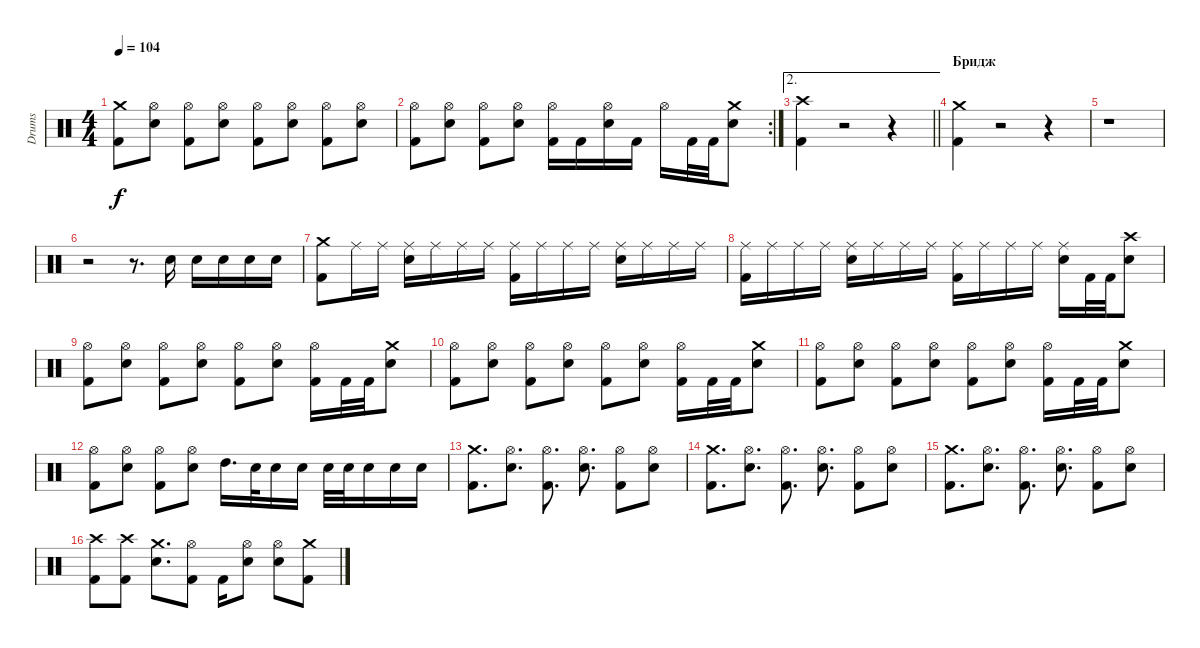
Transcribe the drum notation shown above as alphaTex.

\track ("Drums" "Drums") {instrument percussion}
\staff {score}
\articulation defaults
\ts (4 4)
\tempo 104
\clef neutral
\ks c
("Crash medium (hit)" "Kick (hit) 2").8{dy f} ("Hi-Hat (open)" "Electric Snare (hit)").8 ("Hi-Hat (open)" "Kick (hit) 2").8 ("Hi-Hat (open)" "Electric Snare (hit)").8 ("Hi-Hat (open)" "Kick (hit) 2").8 ("Hi-Hat (open)" "Electric Snare (hit)").8 ("Hi-Hat (open)" "Kick (hit) 2").8 ("Hi-Hat (open)" "Electric Snare (hit)").8 |
\rc 2
("Hi-Hat (open)" "Kick (hit) 2").8 ("Hi-Hat (open)" "Electric Snare (hit)").8 ("Hi-Hat (open)" "Kick (hit) 2").8 ("Hi-Hat (open)" "Electric Snare (hit)").8 ("Hi-Hat (open)" "Kick (hit) 2").16 "Kick (hit) 2".16 ("Hi-Hat (open)" "Electric Snare (hit)").16 "Kick (hit) 2".16 "Hi-Hat (open)".16 "Kick (hit) 2".32 "Kick (hit) 2".32 ("Crash medium (hit)" "Electric Snare (hit)").8 |
\ae 2
\barLineRight lightlight
("Crash high (hit)" "Kick (hit) 2").4 r.2 r.4 |
\section ("" "Бридж")
("Crash medium (hit)" "Kick (hit) 2").4 r.2 r.4 |
r.1 |
r.2 r.8{d} "Electric Snare (hit)".16 "Electric Snare (hit)".16 "Electric Snare (hit)".16 "Electric Snare (hit)".16 "Electric Snare (hit)".16 |
("Crash medium (hit)" "Kick (hit) 2").8 "Ride (middle)".16 "Ride (middle)".16 ("Ride (middle)" "Electric Snare (hit)").16 "Ride (middle)".16 "Ride (middle)".16 "Ride (middle)".16 ("Ride (middle)" "Kick (hit) 2").16 "Ride (middle)".16 "Ride (middle)".16 "Ride (middle)".16 ("Ride (middle)" "Electric Snare (hit)").16 "Ride (middle)".16 "Ride (middle)".16 "Ride (middle)".16 |
("Ride (middle)" "Kick (hit) 2").16 "Ride (middle)".16 "Ride (middle)".16 "Ride (middle)".16 ("Ride (middle)" "Electric Snare (hit)").16 "Ride (middle)".16 "Ride (middle)".16 "Ride (middle)".16 ("Ride (middle)" "Kick (hit) 2").16 "Ride (middle)".16 "Ride (middle)".16 "Ride (middle)".16 ("Ride (middle)" "Electric Snare (hit)").16 "Kick (hit) 2".32 "Kick (hit) 2".32 ("Crash high (hit)" "Electric Snare (hit)").8 |
("Hi-Hat (open)" "Kick (hit) 2").8 ("Hi-Hat (open)" "Electric Snare (hit)").8 ("Hi-Hat (open)" "Kick (hit) 2").8 ("Hi-Hat (open)" "Electric Snare (hit)").8 ("Hi-Hat (open)" "Kick (hit) 2").8 ("Hi-Hat (open)" "Electric Snare (hit)").8 ("Hi-Hat (open)" "Kick (hit) 2").16 "Kick (hit) 2".32 "Kick (hit) 2".32 ("Crash medium (hit)" "Electric Snare (hit)").8 |
("Hi-Hat (open)" "Kick (hit) 2").8 ("Hi-Hat (open)" "Electric Snare (hit)").8 ("Hi-Hat (open)" "Kick (hit) 2").8 ("Hi-Hat (open)" "Electric Snare (hit)").8 ("Hi-Hat (open)" "Kick (hit) 2").8 ("Hi-Hat (open)" "Electric Snare (hit)").8 ("Hi-Hat (open)" "Kick (hit) 2").16 "Kick (hit) 2".32 "Kick (hit) 2".32 ("Crash medium (hit)" "Electric Snare (hit)").8 |
("Hi-Hat (open)" "Kick (hit) 2").8 ("Hi-Hat (open)" "Electric Snare (hit)").8 ("Hi-Hat (open)" "Kick (hit) 2").8 ("Hi-Hat (open)" "Electric Snare (hit)").8 ("Hi-Hat (open)" "Kick (hit) 2").8 ("Hi-Hat (open)" "Electric Snare (hit)").8 ("Hi-Hat (open)" "Kick (hit) 2").16 "Kick (hit) 2".32 "Kick (hit) 2".32 ("Crash medium (hit)" "Electric Snare (hit)").8 |
("Hi-Hat (open)" "Kick (hit) 2").8 ("Hi-Hat (open)" "Electric Snare (hit)").8 ("Hi-Hat (open)" "Kick (hit) 2").8 ("Hi-Hat (open)" "Electric Snare (hit)").8 "High Tom (hit)".16{d} "Electric Snare (hit)".32 "Electric Snare (hit)".16 "Electric Snare (hit)".16 "Electric Snare (hit)".32 "Electric Snare (hit)".32 "Electric Snare (hit)".16 "Electric Snare (hit)".16 "Electric Snare (hit)".16 |
("Crash medium (hit)" "Kick (hit) 2").8{d} ("Hi-Hat (open)" "Electric Snare (hit)").8{d} ("Hi-Hat (open)" "Kick (hit) 2").8{d} ("Hi-Hat (open)" "Electric Snare (hit)").8{d} ("Hi-Hat (open)" "Kick (hit) 2").8 ("Hi-Hat (open)" "Electric Snare (hit)").8 |
("Crash medium (hit)" "Kick (hit) 2").8{d} ("Hi-Hat (open)" "Electric Snare (hit)").8{d} ("Hi-Hat (open)" "Kick (hit) 2").8{d} ("Hi-Hat (open)" "Electric Snare (hit)").8{d} ("Hi-Hat (open)" "Kick (hit) 2").8 ("Hi-Hat (open)" "Electric Snare (hit)").8 |
("Crash medium (hit)" "Kick (hit) 2").8{d} ("Hi-Hat (open)" "Electric Snare (hit)").8{d} ("Hi-Hat (open)" "Kick (hit) 2").8{d} ("Hi-Hat (open)" "Electric Snare (hit)").8{d} ("Hi-Hat (open)" "Kick (hit) 2").8 ("Hi-Hat (open)" "Electric Snare (hit)").8 |
("Crash high (hit)" "Kick (hit) 2").8 ("Crash high (hit)" "Kick (hit) 2").8 ("Crash medium (hit)" "Electric Snare (hit)").8{d} ("Hi-Hat (open)" "Kick (hit) 2").8 "Kick (hit) 2".16 ("Hi-Hat (open)" "Electric Snare (hit)").8 ("Hi-Hat (open)" "Electric Snare (hit)").8 ("Crash medium (hit)" "Kick (hit) 2").8
